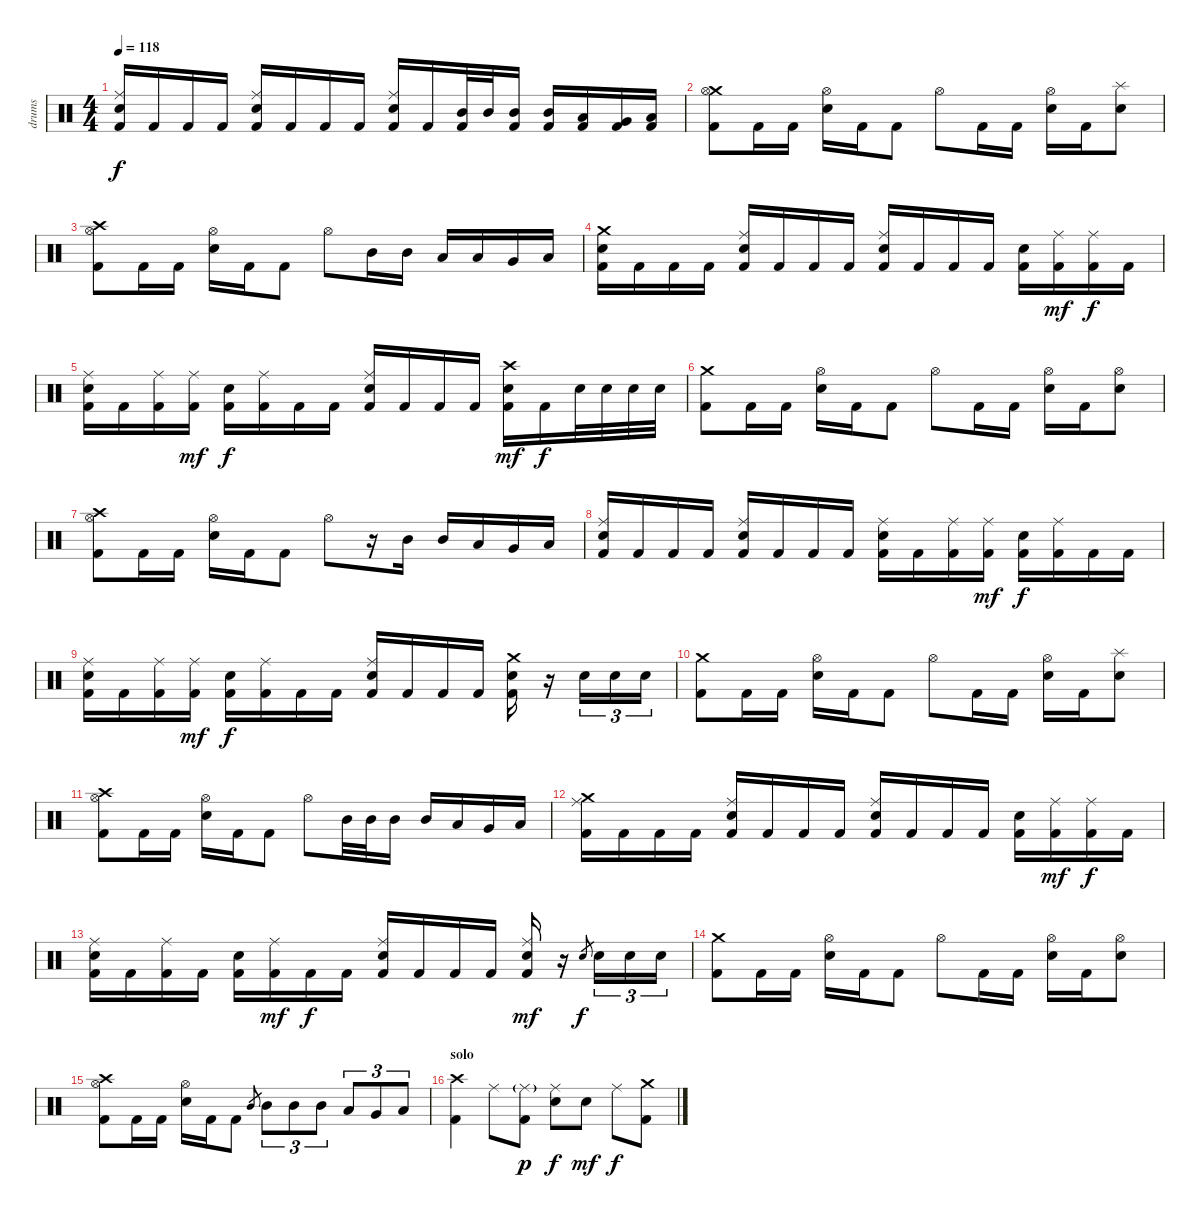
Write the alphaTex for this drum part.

\track ("drums" "drums") {instrument percussion}
\staff {score}
\articulation defaults
\ts (4 4)
\tempo 118
\clef neutral
\ks c
("Kick (hit) 2" "Ride (middle)" "Snare (hit) 2").16{dy f} "Kick (hit) 2".16 "Kick (hit) 2".16 "Kick (hit) 2".16 ("Kick (hit) 2" "Ride (middle)" "Snare (hit) 2").16 "Kick (hit) 2".16 "Kick (hit) 2".16 "Kick (hit) 2".16 ("Kick (hit) 2" "Ride (middle)" "Snare (hit) 2").16 "Kick (hit) 2".16 ("Kick (hit) 2" "Mid Tom (hit)").32 "Mid Tom (hit)".32 ("Kick (hit) 2" "Mid Tom (hit)").16 ("Kick (hit) 2" "Mid Tom (hit)").16 ("Kick (hit) 2" "Low Tom (hit)").16 ("Kick (hit) 2" "Very Low Tom (hit)").16 ("Kick (hit) 2" "Low Floor Tom (hit)").16 |
("Kick (hit) 2" "Crash medium (hit)" "Hi-Hat (open)").8 "Kick (hit) 2".16 "Kick (hit) 2".16 ("Hi-Hat (open)" "Snare (hit) 2").16 "Kick (hit) 2".16 "Kick (hit) 2".8 "Hi-Hat (open)".8 "Kick (hit) 2".16 "Kick (hit) 2".16 ("Hi-Hat (open)" "Snare (hit) 2").16 "Kick (hit) 2".16 ("Splash (hit)" "Snare (hit) 2").8 |
("Kick (hit) 2" "Crash high (hit)" "Hi-Hat (open)").8 "Kick (hit) 2".16 "Kick (hit) 2".16 ("Hi-Hat (open)" "Snare (hit) 2").16 "Kick (hit) 2".16 "Kick (hit) 2".8 "Hi-Hat (open)".8 "Mid Tom (hit)".16 "Mid Tom (hit)".16 "Low Tom (hit)".16 "Low Tom (hit)".16 "Very Low Tom (hit)".16 "Low Floor Tom (hit)".16 |
("Kick (hit) 2" "Crash medium (hit)" "Snare (hit) 2").16 "Kick (hit) 2".16 "Kick (hit) 2".16 "Kick (hit) 2".16 ("Kick (hit) 2" "Ride (middle)" "Snare (hit) 2").16 "Kick (hit) 2".16 "Kick (hit) 2".16 "Kick (hit) 2".16 ("Kick (hit) 2" "Ride (middle)" "Snare (hit) 2").16 "Kick (hit) 2".16 "Kick (hit) 2".16 "Kick (hit) 2".16 ("Kick (hit) 2" "Snare (hit) 2").16 ("Kick (hit) 2" "Ride (middle)").16{dy mf} ("Kick (hit) 2" "Ride (middle)").16{dy f} "Kick (hit) 2".16 |
("Kick (hit) 2" "Ride (middle)" "Snare (hit) 2").16 "Kick (hit) 2".16 ("Kick (hit) 2" "Ride (middle)").16 ("Kick (hit) 2" "Ride (middle)").16{dy mf} ("Kick (hit) 2" "Snare (hit) 2").16{dy f} ("Kick (hit) 2" "Ride (middle)").16 "Kick (hit) 2".16 "Kick (hit) 2".16 ("Kick (hit) 2" "Ride (middle)" "Snare (hit) 2").16 "Kick (hit) 2".16 "Kick (hit) 2".16 "Kick (hit) 2".16 ("Kick (hit) 2" "Crash high (hit)" "Snare (hit) 2").16{dy mf} "Kick (hit) 2".16{dy f} "Snare (hit) 2".32 "Snare (hit) 2".32 "Snare (hit) 2".32 "Snare (hit) 2".32 |
("Kick (hit) 2" "Crash medium (hit)").8 "Kick (hit) 2".16 "Kick (hit) 2".16 ("Hi-Hat (open)" "Snare (hit) 2").16 "Kick (hit) 2".16 "Kick (hit) 2".8 "Hi-Hat (open)".8 "Kick (hit) 2".16 "Kick (hit) 2".16 ("Hi-Hat (open)" "Snare (hit) 2").16 "Kick (hit) 2".16 ("Hi-Hat (open)" "Snare (hit) 2").8 |
("Kick (hit) 2" "Crash high (hit)" "Hi-Hat (open)").8 "Kick (hit) 2".16 "Kick (hit) 2".16 ("Hi-Hat (open)" "Snare (hit) 2").16 "Kick (hit) 2".16 "Kick (hit) 2".8 "Hi-Hat (open)".8 r.16 "Mid Tom (hit)".16 "Mid Tom (hit)".16 "Low Tom (hit)".16 "Very Low Tom (hit)".16 "Low Floor Tom (hit)".16 |
("Kick (hit) 2" "Ride (middle)" "Snare (hit) 2").16 "Kick (hit) 2".16 "Kick (hit) 2".16 "Kick (hit) 2".16 ("Kick (hit) 2" "Ride (middle)" "Snare (hit) 2").16 "Kick (hit) 2".16 "Kick (hit) 2".16 "Kick (hit) 2".16 ("Kick (hit) 2" "Ride (middle)" "Snare (hit) 2").16 "Kick (hit) 2".16 ("Kick (hit) 2" "Ride (middle)").16 ("Kick (hit) 2" "Ride (middle)").16{dy mf} ("Kick (hit) 2" "Snare (hit) 2").16{dy f} ("Kick (hit) 2" "Ride (middle)").16 "Kick (hit) 2".16 "Kick (hit) 2".16 |
("Kick (hit) 2" "Ride (middle)" "Snare (hit) 2").16 "Kick (hit) 2".16 ("Kick (hit) 2" "Ride (middle)").16 ("Kick (hit) 2" "Ride (middle)").16{dy mf} ("Kick (hit) 2" "Snare (hit) 2").16{dy f} ("Kick (hit) 2" "Ride (middle)").16 "Kick (hit) 2".16 "Kick (hit) 2".16 ("Kick (hit) 2" "Ride (middle)" "Snare (hit) 2").16 "Kick (hit) 2".16 "Kick (hit) 2".16 "Kick (hit) 2".16 ("Kick (hit) 2" "Crash medium (hit)" "Snare (hit) 2").16 r.16 "Snare (hit) 2".16{tu (3 2)} "Snare (hit) 2".16{tu (3 2)} "Snare (hit) 2".16{tu (3 2)} |
("Kick (hit) 2" "Crash medium (hit)").8 "Kick (hit) 2".16 "Kick (hit) 2".16 ("Hi-Hat (open)" "Snare (hit) 2").16 "Kick (hit) 2".16 "Kick (hit) 2".8 "Hi-Hat (open)".8 "Kick (hit) 2".16 "Kick (hit) 2".16 ("Hi-Hat (open)" "Snare (hit) 2").16 "Kick (hit) 2".16 ("Splash (hit)" "Snare (hit) 2").8 |
("Kick (hit) 2" "Crash high (hit)" "Hi-Hat (open)").8 "Kick (hit) 2".16 "Kick (hit) 2".16 ("Hi-Hat (open)" "Snare (hit) 2").16 "Kick (hit) 2".16 "Kick (hit) 2".8 "Hi-Hat (open)".8 "Mid Tom (hit)".32 "Mid Tom (hit)".32 "Mid Tom (hit)".16 "Mid Tom (hit)".16 "Low Tom (hit)".16 "Very Low Tom (hit)".16 "Low Floor Tom (hit)".16 |
("Kick (hit) 2" "Crash medium (hit)" "Ride (middle)").16 "Kick (hit) 2".16 "Kick (hit) 2".16 "Kick (hit) 2".16 ("Kick (hit) 2" "Ride (middle)" "Snare (hit) 2").16 "Kick (hit) 2".16 "Kick (hit) 2".16 "Kick (hit) 2".16 ("Kick (hit) 2" "Ride (middle)" "Snare (hit) 2").16 "Kick (hit) 2".16 "Kick (hit) 2".16 "Kick (hit) 2".16 ("Kick (hit) 2" "Snare (hit) 2").16 ("Kick (hit) 2" "Ride (middle)").16{dy mf} ("Kick (hit) 2" "Ride (middle)").16{dy f} "Kick (hit) 2".16 |
("Kick (hit) 2" "Ride (middle)" "Snare (hit) 2").16 "Kick (hit) 2".16 ("Kick (hit) 2" "Ride (middle)").16 "Kick (hit) 2".16 ("Kick (hit) 2" "Snare (hit) 2").16 ("Kick (hit) 2" "Ride (middle)").16{dy mf} "Kick (hit) 2".16{dy f} "Kick (hit) 2".16 ("Kick (hit) 2" "Ride (middle)" "Snare (hit) 2").16 "Kick (hit) 2".16 "Kick (hit) 2".16 "Kick (hit) 2".16 ("Kick (hit) 2" "Ride (middle)" "Snare (hit) 2").16{dy mf} r.16 "Snare (hit) 2".8{gr dy f} "Snare (hit) 2".16{tu (3 2)} "Snare (hit) 2".16{tu (3 2)} "Snare (hit) 2".16{tu (3 2)} |
("Kick (hit) 2" "Crash medium (hit)").8 "Kick (hit) 2".16 "Kick (hit) 2".16 ("Hi-Hat (open)" "Snare (hit) 2").16 "Kick (hit) 2".16 "Kick (hit) 2".8 "Hi-Hat (open)".8 "Kick (hit) 2".16 "Kick (hit) 2".16 ("Hi-Hat (open)" "Snare (hit) 2").16 "Kick (hit) 2".16 ("Hi-Hat (open)" "Snare (hit) 2").8 |
("Kick (hit) 2" "Crash high (hit)" "Hi-Hat (open)").8 "Kick (hit) 2".16 "Kick (hit) 2".16 ("Hi-Hat (open)" "Snare (hit) 2").16 "Kick (hit) 2".16 "Kick (hit) 2".8 "Mid Tom (hit)".8{gr} "Mid Tom (hit)".8{tu (3 2)} "Mid Tom (hit)".8{tu (3 2)} "Mid Tom (hit)".8{tu (3 2)} "Low Tom (hit)".8{tu (3 2)} "Very Low Tom (hit)".8{tu (3 2)} "Low Floor Tom (hit)".8{tu (3 2)} |
\section ("" "solo")
("Kick (hit) 2" "Crash high (hit)").4 "Ride (middle)".8 ("Kick (hit) 2" "Ride (middle)"{g}).8{dy p} ("Ride (middle)" "Snare (hit) 2").8{dy f} "Snare (hit) 2".8{dy mf} "Ride (middle)".8{dy f} ("Kick (hit) 2" "Crash medium (hit)").8
